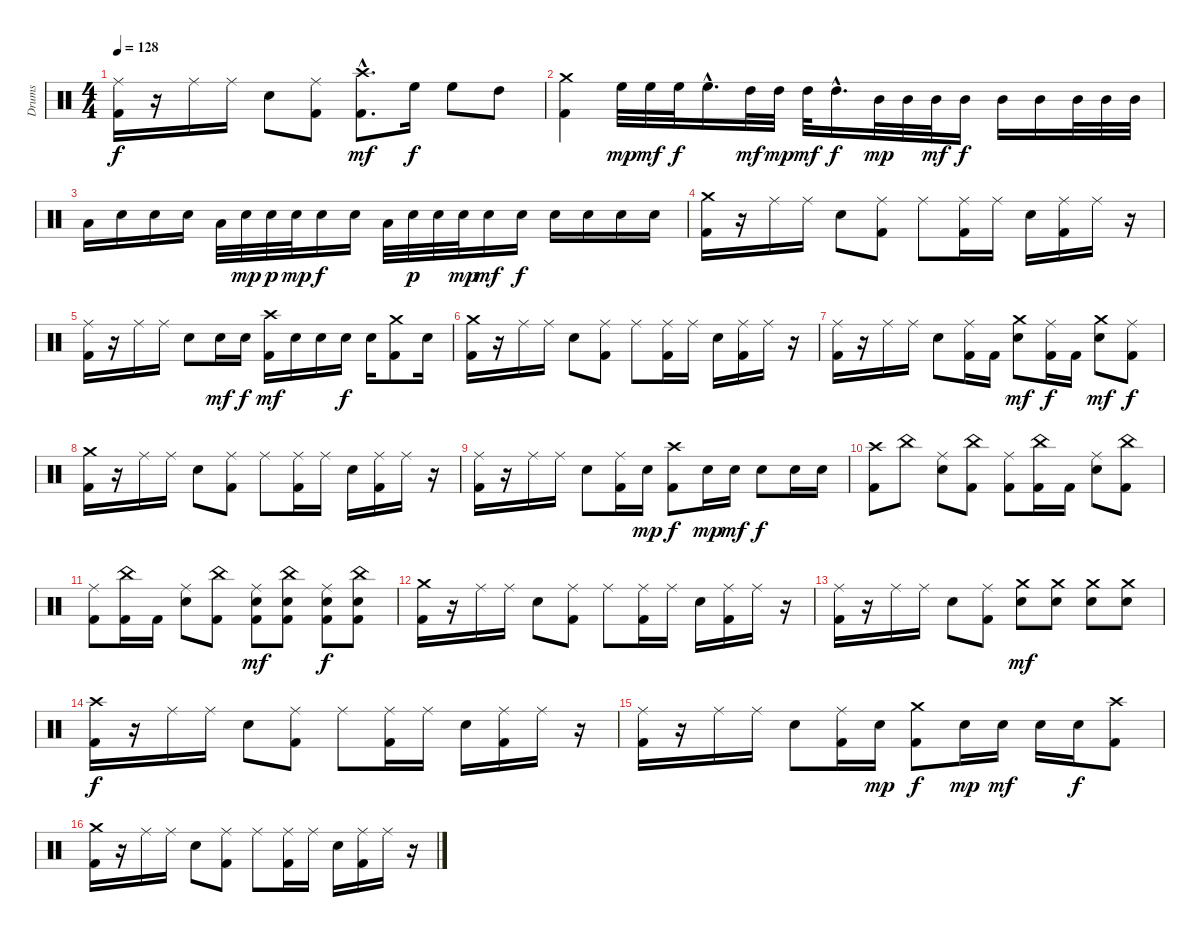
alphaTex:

\track ("Drums" "Drums") {instrument percussion}
\staff {score}
\articulation defaults
\ts (4 4)
\tempo 128
\clef neutral
\ks c
("Ride (middle)" "Kick (hit) 2").16{dy f} r.16 "Ride (middle)".16 "Ride (middle)".16 "Electric Snare (hit)".8 ("Ride (middle)" "Kick (hit) 2").8 ("Crash high (hit)"{hac} "Kick (hit) 2"{hac}).8{d dy mf} "High Floor Tom (hit)".16{dy f} "High Floor Tom (hit)".8 "High Tom (hit)".8 |
("Crash medium (hit)" "Kick (hit) 2").4 "High Floor Tom (hit)".32{dy mp} "High Floor Tom (hit)".32{dy mf} "High Floor Tom (hit)".32{dy f} "High Floor Tom (hit)"{hac}.16{d} "High Tom (hit)".32{dy mf} "High Tom (hit)".32{dy mp} "High Tom (hit)".32{dy mf} "High Tom (hit)"{hac}.16{d dy f} "Mid Tom (hit)".32{dy mp} "Mid Tom (hit)".32 "Mid Tom (hit)".32{dy mf} "Mid Tom (hit)".16{dy f} "Mid Tom (hit)".16 "Mid Tom (hit)".16 "Mid Tom (hit)".32 "Mid Tom (hit)".32 "Mid Tom (hit)".32 |
"Low Tom (hit)".16 "Electric Snare (hit)".16 "Electric Snare (hit)".16 "Electric Snare (hit)".16 "Low Tom (hit)".32 "Electric Snare (hit)".32{dy mp} "Electric Snare (hit)".32{dy p} "Electric Snare (hit)".32{dy mp} "Electric Snare (hit)".16{dy f} "Electric Snare (hit)".16 "Low Tom (hit)".32 "Electric Snare (hit)".32{dy p} "Electric Snare (hit)".32 "Electric Snare (hit)".32{dy mp} "Electric Snare (hit)".16{dy mf} "Electric Snare (hit)".16{dy f} "Electric Snare (hit)".16 "Electric Snare (hit)".16 "Electric Snare (hit)".16 "Electric Snare (hit)".16 |
("Crash medium (hit)" "Kick (hit) 2").16 r.16 "Ride (middle)".16 "Ride (middle)".16 "Electric Snare (hit)".8 ("Ride (middle)" "Kick (hit) 2").8 "Ride (middle)".8 ("Ride (middle)" "Kick (hit) 2").16 "Ride (middle)".16 "Electric Snare (hit)".16 ("Ride (middle)" "Kick (hit) 2").16 "Ride (middle)".16 r.16 |
("Ride (middle)" "Kick (hit) 2").16 r.16 "Ride (middle)".16 "Ride (middle)".16 "Electric Snare (hit)".8 "Electric Snare (hit)".16{dy mf} "Electric Snare (hit)".16{dy f} ("Crash high (hit)" "Kick (hit) 2").16{dy mf} "Electric Snare (hit)".16 "Electric Snare (hit)".16 "Electric Snare (hit)".16{dy f} "Electric Snare (hit)".16 ("Crash medium (hit)" "Kick (hit) 2").8 "Electric Snare (hit)".16 |
("Crash medium (hit)" "Kick (hit) 2").16 r.16 "Ride (middle)".16 "Ride (middle)".16 "Electric Snare (hit)".8 ("Ride (middle)" "Kick (hit) 2").8 "Ride (middle)".8 ("Ride (middle)" "Kick (hit) 2").16 "Ride (middle)".16 "Electric Snare (hit)".16 ("Ride (middle)" "Kick (hit) 2").16 "Ride (middle)".16 r.16 |
("Ride (middle)" "Kick (hit) 2").16 r.16 "Ride (middle)".16 "Ride (middle)".16 "Electric Snare (hit)".8 ("Ride (middle)" "Kick (hit) 2").16 "Kick (hit) 2".16 ("Crash medium (hit)" "Electric Snare (hit)").8{dy mf} ("Ride (middle)" "Kick (hit) 2").16{dy f} "Kick (hit) 2".16 ("Crash medium (hit)" "Electric Snare (hit)").8{dy mf} ("Ride (middle)" "Kick (hit) 2").8{dy f} |
("Crash medium (hit)" "Kick (hit) 2").16 r.16 "Ride (middle)".16 "Ride (middle)".16 "Electric Snare (hit)".8 ("Ride (middle)" "Kick (hit) 2").8 "Ride (middle)".8 ("Ride (middle)" "Kick (hit) 2").16 "Ride (middle)".16 "Electric Snare (hit)".16 ("Ride (middle)" "Kick (hit) 2").16 "Ride (middle)".16 r.16 |
("Ride (middle)" "Kick (hit) 2").16 r.16 "Ride (middle)".16 "Ride (middle)".16 "Electric Snare (hit)".8 ("Ride (middle)" "Kick (hit) 2").16 "Electric Snare (hit)".16{dy mp} ("Crash high (hit)" "Kick (hit) 2").8{dy f} "Electric Snare (hit)".16{dy mp} "Electric Snare (hit)".16{dy mf} "Electric Snare (hit)".8{dy f} "Electric Snare (hit)".16 "Electric Snare (hit)".16 |
("Crash high (hit)" "Kick (hit) 2").8 "China (hit)".8 ("Ride (middle)" "Electric Snare (hit)").8 ("China (hit)" "Kick (hit) 2").8 ("Ride (middle)" "Kick (hit) 2").8 ("China (hit)" "Kick (hit) 2").16 "Kick (hit) 2".16 ("Ride (middle)" "Electric Snare (hit)").8 ("China (hit)" "Kick (hit) 2").8 |
("Ride (middle)" "Kick (hit) 2").8 ("China (hit)" "Kick (hit) 2").16 "Kick (hit) 2".16 ("Ride (middle)" "Electric Snare (hit)").8 ("China (hit)" "Kick (hit) 2").8 ("Ride (middle)" "Electric Snare (hit)" "Kick (hit) 2").8{dy mf} ("China (hit)" "Electric Snare (hit)" "Kick (hit) 2").8 ("Ride (middle)" "Electric Snare (hit)" "Kick (hit) 2").8{dy f} ("China (hit)" "Electric Snare (hit)" "Kick (hit) 2").8 |
("Crash medium (hit)" "Kick (hit) 2").16 r.16 "Ride (middle)".16 "Ride (middle)".16 "Electric Snare (hit)".8 ("Ride (middle)" "Kick (hit) 2").8 "Ride (middle)".8 ("Ride (middle)" "Kick (hit) 2").16 "Ride (middle)".16 "Electric Snare (hit)".16 ("Ride (middle)" "Kick (hit) 2").16 "Ride (middle)".16 r.16 |
("Ride (middle)" "Kick (hit) 2").16 r.16 "Ride (middle)".16 "Ride (middle)".16 "Electric Snare (hit)".8 ("Ride (middle)" "Kick (hit) 2").8 ("Crash medium (hit)" "Electric Snare (hit)").8{dy mf} ("Crash medium (hit)" "Electric Snare (hit)").8 ("Crash medium (hit)" "Electric Snare (hit)").8 ("Crash medium (hit)" "Electric Snare (hit)").8 |
("Crash high (hit)" "Kick (hit) 2").16{dy f} r.16 "Ride (middle)".16 "Ride (middle)".16 "Electric Snare (hit)".8 ("Ride (middle)" "Kick (hit) 2").8 "Ride (middle)".8 ("Ride (middle)" "Kick (hit) 2").16 "Ride (middle)".16 "Electric Snare (hit)".16 ("Ride (middle)" "Kick (hit) 2").16 "Ride (middle)".16 r.16 |
("Ride (middle)" "Kick (hit) 2").16 r.16 "Ride (middle)".16 "Ride (middle)".16 "Electric Snare (hit)".8 ("Ride (middle)" "Kick (hit) 2").16 "Electric Snare (hit)".16{dy mp} ("Crash medium (hit)" "Kick (hit) 2").8{dy f} "Electric Snare (hit)".16{dy mp} "Electric Snare (hit)".16{dy mf} "Electric Snare (hit)".16 "Electric Snare (hit)".16{dy f} ("Crash high (hit)" "Kick (hit) 2").8 |
("Crash medium (hit)" "Kick (hit) 2").16 r.16 "Ride (middle)".16 "Ride (middle)".16 "Electric Snare (hit)".8 ("Ride (middle)" "Kick (hit) 2").8 "Ride (middle)".8 ("Ride (middle)" "Kick (hit) 2").16 "Ride (middle)".16 "Electric Snare (hit)".16 ("Ride (middle)" "Kick (hit) 2").16 "Ride (middle)".16 r.16
